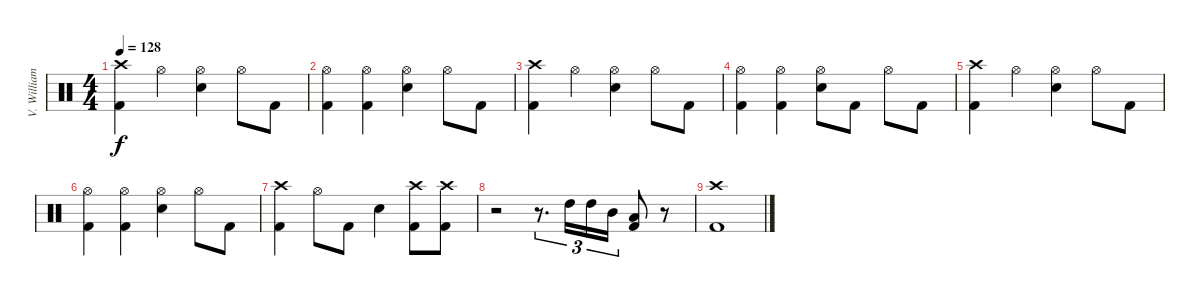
\track ("V. Williams" "V. William") {instrument percussion}
\staff {score}
\articulation defaults
\ts (4 4)
\section ("" "")
\tempo 128
\clef neutral
\ks c
("Crash high (hit)" "Kick (hit) 2").4{dy f} "Hi-Hat (open)".4 ("Hi-Hat (open)" "Electric Snare (hit)").4 "Hi-Hat (open)".8 "Kick (hit) 2".8 |
("Hi-Hat (open)" "Kick (hit) 2").4 ("Hi-Hat (open)" "Kick (hit) 2").4 ("Hi-Hat (open)" "Electric Snare (hit)").4 "Hi-Hat (open)".8 "Kick (hit) 2".8 |
("Crash high (hit)" "Kick (hit) 2").4 "Hi-Hat (open)".4 ("Hi-Hat (open)" "Electric Snare (hit)").4 "Hi-Hat (open)".8 "Kick (hit) 2".8 |
("Hi-Hat (open)" "Kick (hit) 2").4 ("Hi-Hat (open)" "Kick (hit) 2").4 ("Hi-Hat (open)" "Electric Snare (hit)").8 "Kick (hit) 2".8 "Hi-Hat (open)".8 "Kick (hit) 2".8 |
("Crash high (hit)" "Kick (hit) 2").4 "Hi-Hat (open)".4 ("Hi-Hat (open)" "Electric Snare (hit)").4 "Hi-Hat (open)".8 "Kick (hit) 2".8 |
("Hi-Hat (open)" "Kick (hit) 2").4 ("Hi-Hat (open)" "Kick (hit) 2").4 ("Hi-Hat (open)" "Electric Snare (hit)").4 "Hi-Hat (open)".8 "Kick (hit) 2".8 |
("Crash high (hit)" "Kick (hit) 2").4 "Hi-Hat (open)".8 "Kick (hit) 2".8 "Electric Snare (hit)".4 ("Crash high (hit)" "Kick (hit) 2").8 ("Crash high (hit)" "Kick (hit) 2").8 |
r.2 r.8{d tu (3 2)} "High Tom (hit)".16{tu (3 2)} "High Tom (hit)".16{tu (3 2)} "Mid Tom (hit)".16{tu (3 2)} ("Low Tom (hit)" "Kick (hit) 2").8 r.8 |
\section ("" "")
("Crash high (hit)" "Kick (hit) 2").1
